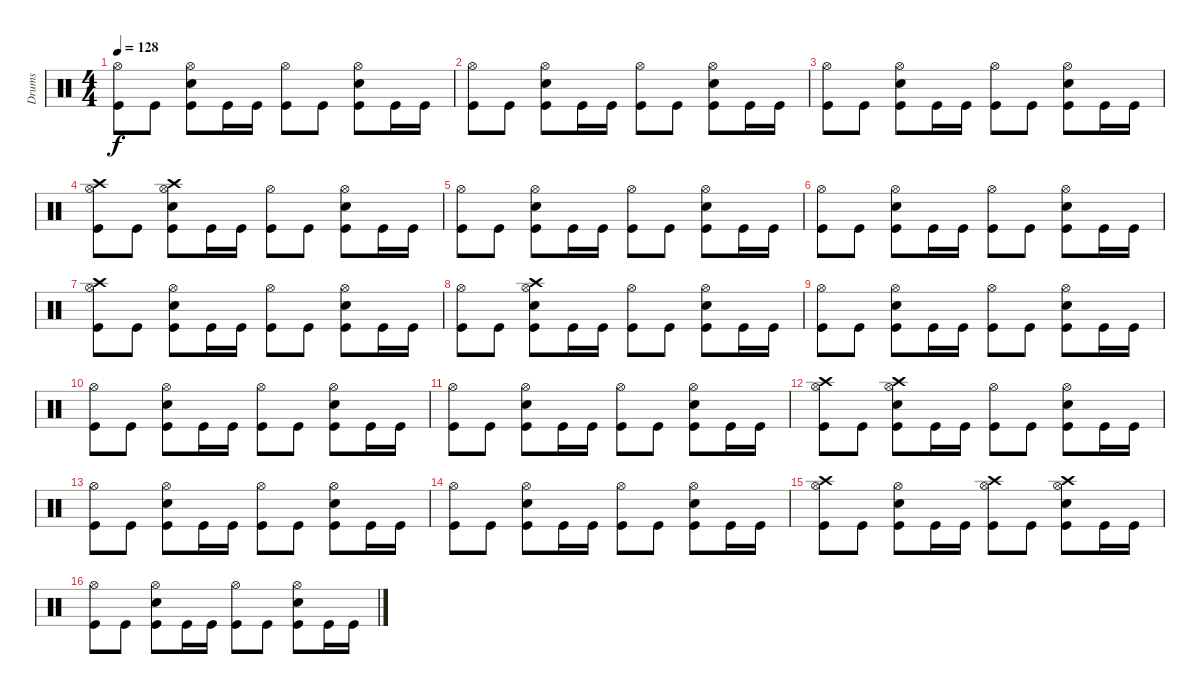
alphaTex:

\track ("Drums" "Drums") {instrument percussion}
\staff {score}
\articulation defaults
\ts (4 4)
\tempo 128
\clef neutral
\ks c
("Hi-Hat (open)" "Kick (hit)").8{dy f} "Kick (hit)".8 ("Hi-Hat (open)" "Snare (hit) 2" "Kick (hit)").8 "Kick (hit)".16 "Kick (hit)".16 ("Hi-Hat (open)" "Kick (hit)").8 "Kick (hit)".8 ("Hi-Hat (open)" "Snare (hit) 2" "Kick (hit)").8 "Kick (hit)".16 "Kick (hit)".16 |
("Hi-Hat (open)" "Kick (hit)").8 "Kick (hit)".8 ("Hi-Hat (open)" "Snare (hit) 2" "Kick (hit)").8 "Kick (hit)".16 "Kick (hit)".16 ("Hi-Hat (open)" "Kick (hit)").8 "Kick (hit)".8 ("Hi-Hat (open)" "Snare (hit) 2" "Kick (hit)").8 "Kick (hit)".16 "Kick (hit)".16 |
("Hi-Hat (open)" "Kick (hit)").8 "Kick (hit)".8 ("Hi-Hat (open)" "Snare (hit) 2" "Kick (hit)").8 "Kick (hit)".16 "Kick (hit)".16 ("Hi-Hat (open)" "Kick (hit)").8 "Kick (hit)".8 ("Hi-Hat (open)" "Snare (hit) 2" "Kick (hit)").8 "Kick (hit)".16 "Kick (hit)".16 |
("Crash high (hit)" "Hi-Hat (open)" "Kick (hit)").8 "Kick (hit)".8 ("Crash high (hit)" "Hi-Hat (open)" "Snare (hit) 2" "Kick (hit)").8 "Kick (hit)".16 "Kick (hit)".16 ("Hi-Hat (open)" "Kick (hit)").8 "Kick (hit)".8 ("Hi-Hat (open)" "Snare (hit) 2" "Kick (hit)").8 "Kick (hit)".16 "Kick (hit)".16 |
("Hi-Hat (open)" "Kick (hit)").8 "Kick (hit)".8 ("Hi-Hat (open)" "Snare (hit) 2" "Kick (hit)").8 "Kick (hit)".16 "Kick (hit)".16 ("Hi-Hat (open)" "Kick (hit)").8 "Kick (hit)".8 ("Hi-Hat (open)" "Snare (hit) 2" "Kick (hit)").8 "Kick (hit)".16 "Kick (hit)".16 |
("Hi-Hat (open)" "Kick (hit)").8 "Kick (hit)".8 ("Hi-Hat (open)" "Snare (hit) 2" "Kick (hit)").8 "Kick (hit)".16 "Kick (hit)".16 ("Hi-Hat (open)" "Kick (hit)").8 "Kick (hit)".8 ("Hi-Hat (open)" "Snare (hit) 2" "Kick (hit)").8 "Kick (hit)".16 "Kick (hit)".16 |
("Crash high (hit)" "Hi-Hat (open)" "Kick (hit)").8 "Kick (hit)".8 ("Hi-Hat (open)" "Snare (hit) 2" "Kick (hit)").8 "Kick (hit)".16 "Kick (hit)".16 ("Hi-Hat (open)" "Kick (hit)").8 "Kick (hit)".8 ("Hi-Hat (open)" "Snare (hit) 2" "Kick (hit)").8 "Kick (hit)".16 "Kick (hit)".16 |
("Hi-Hat (open)" "Kick (hit)").8 "Kick (hit)".8 ("Crash high (hit)" "Hi-Hat (open)" "Snare (hit) 2" "Kick (hit)").8 "Kick (hit)".16 "Kick (hit)".16 ("Hi-Hat (open)" "Kick (hit)").8 "Kick (hit)".8 ("Hi-Hat (open)" "Snare (hit) 2" "Kick (hit)").8 "Kick (hit)".16 "Kick (hit)".16 |
("Hi-Hat (open)" "Kick (hit)").8 "Kick (hit)".8 ("Hi-Hat (open)" "Snare (hit) 2" "Kick (hit)").8 "Kick (hit)".16 "Kick (hit)".16 ("Hi-Hat (open)" "Kick (hit)").8 "Kick (hit)".8 ("Hi-Hat (open)" "Snare (hit) 2" "Kick (hit)").8 "Kick (hit)".16 "Kick (hit)".16 |
("Hi-Hat (open)" "Kick (hit)").8 "Kick (hit)".8 ("Hi-Hat (open)" "Snare (hit) 2" "Kick (hit)").8 "Kick (hit)".16 "Kick (hit)".16 ("Hi-Hat (open)" "Kick (hit)").8 "Kick (hit)".8 ("Hi-Hat (open)" "Snare (hit) 2" "Kick (hit)").8 "Kick (hit)".16 "Kick (hit)".16 |
("Hi-Hat (open)" "Kick (hit)").8 "Kick (hit)".8 ("Hi-Hat (open)" "Snare (hit) 2" "Kick (hit)").8 "Kick (hit)".16 "Kick (hit)".16 ("Hi-Hat (open)" "Kick (hit)").8 "Kick (hit)".8 ("Hi-Hat (open)" "Snare (hit) 2" "Kick (hit)").8 "Kick (hit)".16 "Kick (hit)".16 |
("Crash high (hit)" "Hi-Hat (open)" "Kick (hit)").8 "Kick (hit)".8 ("Crash high (hit)" "Hi-Hat (open)" "Snare (hit) 2" "Kick (hit)").8 "Kick (hit)".16 "Kick (hit)".16 ("Hi-Hat (open)" "Kick (hit)").8 "Kick (hit)".8 ("Hi-Hat (open)" "Snare (hit) 2" "Kick (hit)").8 "Kick (hit)".16 "Kick (hit)".16 |
("Hi-Hat (open)" "Kick (hit)").8 "Kick (hit)".8 ("Hi-Hat (open)" "Snare (hit) 2" "Kick (hit)").8 "Kick (hit)".16 "Kick (hit)".16 ("Hi-Hat (open)" "Kick (hit)").8 "Kick (hit)".8 ("Hi-Hat (open)" "Snare (hit) 2" "Kick (hit)").8 "Kick (hit)".16 "Kick (hit)".16 |
("Hi-Hat (open)" "Kick (hit)").8 "Kick (hit)".8 ("Hi-Hat (open)" "Snare (hit) 2" "Kick (hit)").8 "Kick (hit)".16 "Kick (hit)".16 ("Hi-Hat (open)" "Kick (hit)").8 "Kick (hit)".8 ("Hi-Hat (open)" "Snare (hit) 2" "Kick (hit)").8 "Kick (hit)".16 "Kick (hit)".16 |
("Crash high (hit)" "Hi-Hat (open)" "Kick (hit)").8 "Kick (hit)".8 ("Hi-Hat (open)" "Snare (hit) 2" "Kick (hit)").8 "Kick (hit)".16 "Kick (hit)".16 ("Crash high (hit)" "Hi-Hat (open)" "Kick (hit)").8 "Kick (hit)".8 ("Crash high (hit)" "Hi-Hat (open)" "Snare (hit) 2" "Kick (hit)").8 "Kick (hit)".16 "Kick (hit)".16 |
\section ("" "")
("Hi-Hat (open)" "Kick (hit)").8 "Kick (hit)".8 ("Hi-Hat (open)" "Snare (hit) 2" "Kick (hit)").8 "Kick (hit)".16 "Kick (hit)".16 ("Hi-Hat (open)" "Kick (hit)").8 "Kick (hit)".8 ("Hi-Hat (open)" "Snare (hit) 2" "Kick (hit)").8 "Kick (hit)".16 "Kick (hit)".16
